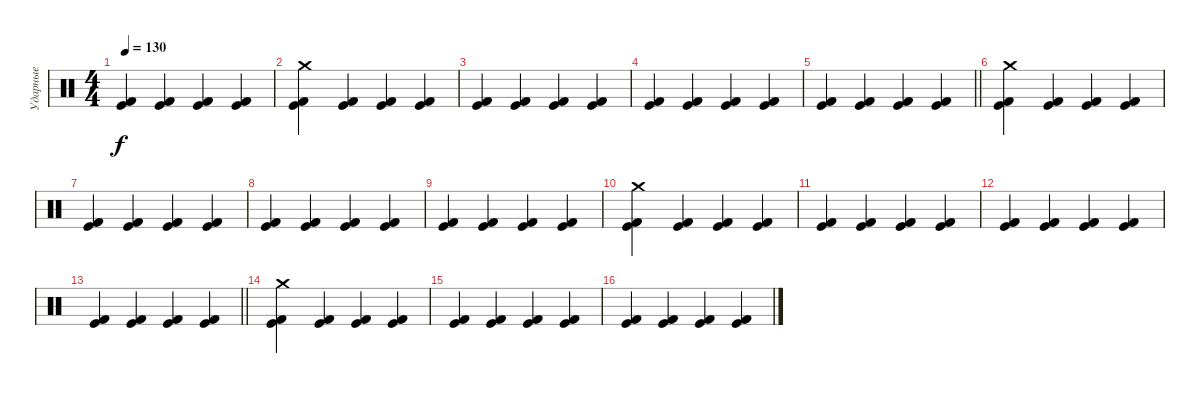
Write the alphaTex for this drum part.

\track ("Ударные" "Ударные") {instrument percussion}
\staff {score}
\articulation defaults
\ts (4 4)
\tempo 130
\clef neutral
\ks c
("Kick (hit) 2" "Kick (hit)").4{dy f} ("Kick (hit) 2" "Kick (hit)").4 ("Kick (hit) 2" "Kick (hit)").4 ("Kick (hit) 2" "Kick (hit)").4 |
("Kick (hit) 2" "Kick (hit)" "Crash medium (hit)").4 ("Kick (hit) 2" "Kick (hit)").4 ("Kick (hit) 2" "Kick (hit)").4 ("Kick (hit) 2" "Kick (hit)").4 |
("Kick (hit) 2" "Kick (hit)").4 ("Kick (hit) 2" "Kick (hit)").4 ("Kick (hit) 2" "Kick (hit)").4 ("Kick (hit) 2" "Kick (hit)").4 |
("Kick (hit) 2" "Kick (hit)").4 ("Kick (hit) 2" "Kick (hit)").4 ("Kick (hit) 2" "Kick (hit)").4 ("Kick (hit) 2" "Kick (hit)").4 |
\barLineRight lightlight
("Kick (hit) 2" "Kick (hit)").4 ("Kick (hit) 2" "Kick (hit)").4 ("Kick (hit) 2" "Kick (hit)").4 ("Kick (hit) 2" "Kick (hit)").4 |
("Kick (hit) 2" "Kick (hit)" "Crash medium (hit)").4 ("Kick (hit) 2" "Kick (hit)").4 ("Kick (hit) 2" "Kick (hit)").4 ("Kick (hit) 2" "Kick (hit)").4 |
("Kick (hit) 2" "Kick (hit)").4 ("Kick (hit) 2" "Kick (hit)").4 ("Kick (hit) 2" "Kick (hit)").4 ("Kick (hit) 2" "Kick (hit)").4 |
("Kick (hit) 2" "Kick (hit)").4 ("Kick (hit) 2" "Kick (hit)").4 ("Kick (hit) 2" "Kick (hit)").4 ("Kick (hit) 2" "Kick (hit)").4 |
("Kick (hit) 2" "Kick (hit)").4 ("Kick (hit) 2" "Kick (hit)").4 ("Kick (hit) 2" "Kick (hit)").4 ("Kick (hit) 2" "Kick (hit)").4 |
("Kick (hit) 2" "Kick (hit)" "Crash medium (hit)").4 ("Kick (hit) 2" "Kick (hit)").4 ("Kick (hit) 2" "Kick (hit)").4 ("Kick (hit) 2" "Kick (hit)").4 |
("Kick (hit) 2" "Kick (hit)").4 ("Kick (hit) 2" "Kick (hit)").4 ("Kick (hit) 2" "Kick (hit)").4 ("Kick (hit) 2" "Kick (hit)").4 |
("Kick (hit) 2" "Kick (hit)").4 ("Kick (hit) 2" "Kick (hit)").4 ("Kick (hit) 2" "Kick (hit)").4 ("Kick (hit) 2" "Kick (hit)").4 |
\barLineRight lightlight
("Kick (hit) 2" "Kick (hit)").4 ("Kick (hit) 2" "Kick (hit)").4 ("Kick (hit) 2" "Kick (hit)").4 ("Kick (hit) 2" "Kick (hit)").4 |
("Kick (hit) 2" "Kick (hit)" "Crash medium (hit)").4 ("Kick (hit) 2" "Kick (hit)").4 ("Kick (hit) 2" "Kick (hit)").4 ("Kick (hit) 2" "Kick (hit)").4 |
("Kick (hit) 2" "Kick (hit)").4 ("Kick (hit) 2" "Kick (hit)").4 ("Kick (hit) 2" "Kick (hit)").4 ("Kick (hit) 2" "Kick (hit)").4 |
("Kick (hit) 2" "Kick (hit)").4 ("Kick (hit) 2" "Kick (hit)").4 ("Kick (hit) 2" "Kick (hit)").4 ("Kick (hit) 2" "Kick (hit)").4
